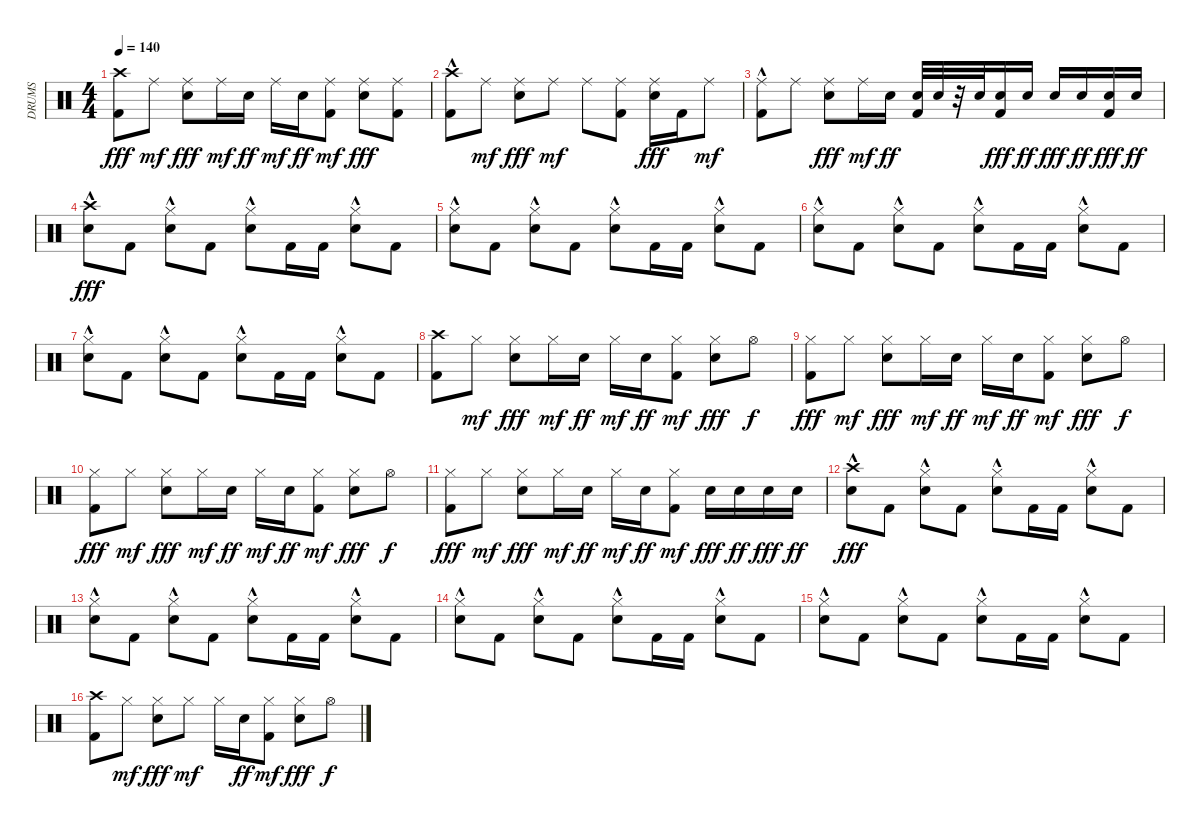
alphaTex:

\track ("DRUMS" "DRUMS") {instrument percussion}
\staff {score}
\articulation defaults
\ts (4 4)
\tempo 140
\clef neutral
\ks c
("Kick (hit) 2" "Crash high (hit)").8{dy fff} "Ride (middle)".8{dy mf} ("Ride (middle)" "Electric Snare (hit)").8{dy fff} "Ride (middle)".16{dy mf} "Electric Snare (hit)".16{dy ff} "Ride (middle)".16{dy mf} "Electric Snare (hit)".16{dy ff} ("Kick (hit) 2" "Ride (middle)").8{dy mf} ("Ride (middle)" "Electric Snare (hit)").8{dy fff} ("Ride (middle)" "Kick (hit) 2").8 |
("Kick (hit) 2"{hac} "Crash high (hit)").8 "Ride (middle)".8{dy mf} ("Electric Snare (hit)" "Ride (middle)").8{dy fff} "Ride (middle)".8{dy mf} "Ride (middle)".8 ("Kick (hit) 2" "Ride (middle)").8 ("Electric Snare (hit)" "Ride (middle)").16{dy fff} "Kick (hit) 2".16 "Ride (middle)".8{dy mf} |
("Kick (hit) 2"{hac} "Ride (middle)").8 "Ride (middle)".8 ("Electric Snare (hit)" "Ride (middle)").8{dy fff} "Ride (middle)".16{dy mf} "Electric Snare (hit)".16{dy ff} ("Kick (hit) 2" "Electric Snare (hit)").32 "Electric Snare (hit)".32 r.32 "Electric Snare (hit)".32 ("Kick (hit) 2" "Electric Snare (hit)").16{dy fff} "Electric Snare (hit)".16{dy ff} "Electric Snare (hit)".16{dy fff} "Electric Snare (hit)".16{dy ff} ("Kick (hit) 2" "Electric Snare (hit)").16{dy fff} "Electric Snare (hit)".16{dy ff} |
("Electric Snare (hit)"{hac} "Crash high (hit)"{hac}).8{dy fff} "Kick (hit) 2".8 ("Electric Snare (hit)"{hac} "Hi-Hat (closed)"{hac}).8 "Kick (hit) 2".8 ("Electric Snare (hit)"{hac} "Hi-Hat (closed)"{hac}).8 "Kick (hit) 2".16 "Kick (hit) 2".16 ("Electric Snare (hit)"{hac} "Hi-Hat (closed)"{hac}).8 "Kick (hit) 2".8 |
("Electric Snare (hit)"{hac} "Hi-Hat (closed)"{hac}).8 "Kick (hit) 2".8 ("Electric Snare (hit)"{hac} "Hi-Hat (closed)"{hac}).8 "Kick (hit) 2".8 ("Electric Snare (hit)"{hac} "Hi-Hat (closed)"{hac}).8 "Kick (hit) 2".16 "Kick (hit) 2".16 ("Electric Snare (hit)"{hac} "Hi-Hat (closed)"{hac}).8 "Kick (hit) 2".8 |
("Electric Snare (hit)"{hac} "Hi-Hat (closed)"{hac}).8 "Kick (hit) 2".8 ("Electric Snare (hit)"{hac} "Hi-Hat (closed)"{hac}).8 "Kick (hit) 2".8 ("Electric Snare (hit)"{hac} "Hi-Hat (closed)"{hac}).8 "Kick (hit) 2".16 "Kick (hit) 2".16 ("Electric Snare (hit)"{hac} "Hi-Hat (closed)"{hac}).8 "Kick (hit) 2".8 |
("Electric Snare (hit)"{hac} "Hi-Hat (closed)"{hac}).8 "Kick (hit) 2".8 ("Electric Snare (hit)"{hac} "Hi-Hat (closed)"{hac}).8 "Kick (hit) 2".8 ("Electric Snare (hit)"{hac} "Hi-Hat (closed)"{hac}).8 "Kick (hit) 2".16 "Kick (hit) 2".16 ("Electric Snare (hit)"{hac} "Hi-Hat (closed)"{hac}).8 "Kick (hit) 2".8 |
("Kick (hit) 2" "Crash high (hit)").8 "Hi-Hat (closed)".8{dy mf} ("Hi-Hat (closed)" "Electric Snare (hit)").8{dy fff} "Hi-Hat (closed)".16{dy mf} "Electric Snare (hit)".16{dy ff} "Hi-Hat (closed)".16{dy mf} "Electric Snare (hit)".16{dy ff} ("Kick (hit) 2" "Hi-Hat (closed)").8{dy mf} ("Hi-Hat (closed)" "Electric Snare (hit)").8{dy fff} "Hi-Hat (open)".8{dy f} |
("Kick (hit) 2" "Hi-Hat (closed)").8{dy fff} "Hi-Hat (closed)".8{dy mf} ("Hi-Hat (closed)" "Electric Snare (hit)").8{dy fff} "Hi-Hat (closed)".16{dy mf} "Electric Snare (hit)".16{dy ff} "Hi-Hat (closed)".16{dy mf} "Electric Snare (hit)".16{dy ff} ("Kick (hit) 2" "Hi-Hat (closed)").8{dy mf} ("Hi-Hat (closed)" "Electric Snare (hit)").8{dy fff} "Hi-Hat (open)".8{dy f} |
("Kick (hit) 2" "Hi-Hat (closed)").8{dy fff} "Hi-Hat (closed)".8{dy mf} ("Hi-Hat (closed)" "Electric Snare (hit)").8{dy fff} "Hi-Hat (closed)".16{dy mf} "Electric Snare (hit)".16{dy ff} "Hi-Hat (closed)".16{dy mf} "Electric Snare (hit)".16{dy ff} ("Kick (hit) 2" "Hi-Hat (closed)").8{dy mf} ("Hi-Hat (closed)" "Electric Snare (hit)").8{dy fff} "Hi-Hat (open)".8{dy f} |
("Kick (hit) 2" "Hi-Hat (closed)").8{dy fff} "Hi-Hat (closed)".8{dy mf} ("Hi-Hat (closed)" "Electric Snare (hit)").8{dy fff} "Hi-Hat (closed)".16{dy mf} "Electric Snare (hit)".16{dy ff} "Hi-Hat (closed)".16{dy mf} "Electric Snare (hit)".16{dy ff} ("Kick (hit) 2" "Hi-Hat (closed)").8{dy mf} "Electric Snare (hit)".16{dy fff} "Electric Snare (hit)".16{dy ff} "Electric Snare (hit)".16{dy fff} "Electric Snare (hit)".16{dy ff} |
("Electric Snare (hit)"{hac} "Crash high (hit)"{hac}).8{dy fff} "Kick (hit) 2".8 ("Electric Snare (hit)"{hac} "Hi-Hat (closed)"{hac}).8 "Kick (hit) 2".8 ("Electric Snare (hit)"{hac} "Hi-Hat (closed)"{hac}).8 "Kick (hit) 2".16 "Kick (hit) 2".16 ("Electric Snare (hit)"{hac} "Hi-Hat (closed)"{hac}).8 "Kick (hit) 2".8 |
("Electric Snare (hit)"{hac} "Hi-Hat (closed)"{hac}).8 "Kick (hit) 2".8 ("Electric Snare (hit)"{hac} "Hi-Hat (closed)"{hac}).8 "Kick (hit) 2".8 ("Electric Snare (hit)"{hac} "Hi-Hat (closed)"{hac}).8 "Kick (hit) 2".16 "Kick (hit) 2".16 ("Electric Snare (hit)"{hac} "Hi-Hat (closed)"{hac}).8 "Kick (hit) 2".8 |
("Electric Snare (hit)"{hac} "Hi-Hat (closed)"{hac}).8 "Kick (hit) 2".8 ("Electric Snare (hit)"{hac} "Hi-Hat (closed)"{hac}).8 "Kick (hit) 2".8 ("Electric Snare (hit)"{hac} "Hi-Hat (closed)"{hac}).8 "Kick (hit) 2".16 "Kick (hit) 2".16 ("Electric Snare (hit)"{hac} "Hi-Hat (closed)"{hac}).8 "Kick (hit) 2".8 |
("Electric Snare (hit)"{hac} "Hi-Hat (closed)"{hac}).8 "Kick (hit) 2".8 ("Electric Snare (hit)"{hac} "Hi-Hat (closed)"{hac}).8 "Kick (hit) 2".8 ("Electric Snare (hit)"{hac} "Hi-Hat (closed)"{hac}).8 "Kick (hit) 2".16 "Kick (hit) 2".16 ("Electric Snare (hit)"{hac} "Hi-Hat (closed)"{hac}).8 "Kick (hit) 2".8 |
("Kick (hit) 2" "Crash high (hit)").8 "Hi-Hat (closed)".8{dy mf} ("Hi-Hat (closed)" "Electric Snare (hit)").8{dy fff} "Hi-Hat (closed)".8{dy mf} "Hi-Hat (closed)".16 "Electric Snare (hit)".16{dy ff} ("Kick (hit) 2" "Hi-Hat (closed)").8{dy mf} ("Hi-Hat (closed)" "Electric Snare (hit)").8{dy fff} "Hi-Hat (open)".8{dy f}
